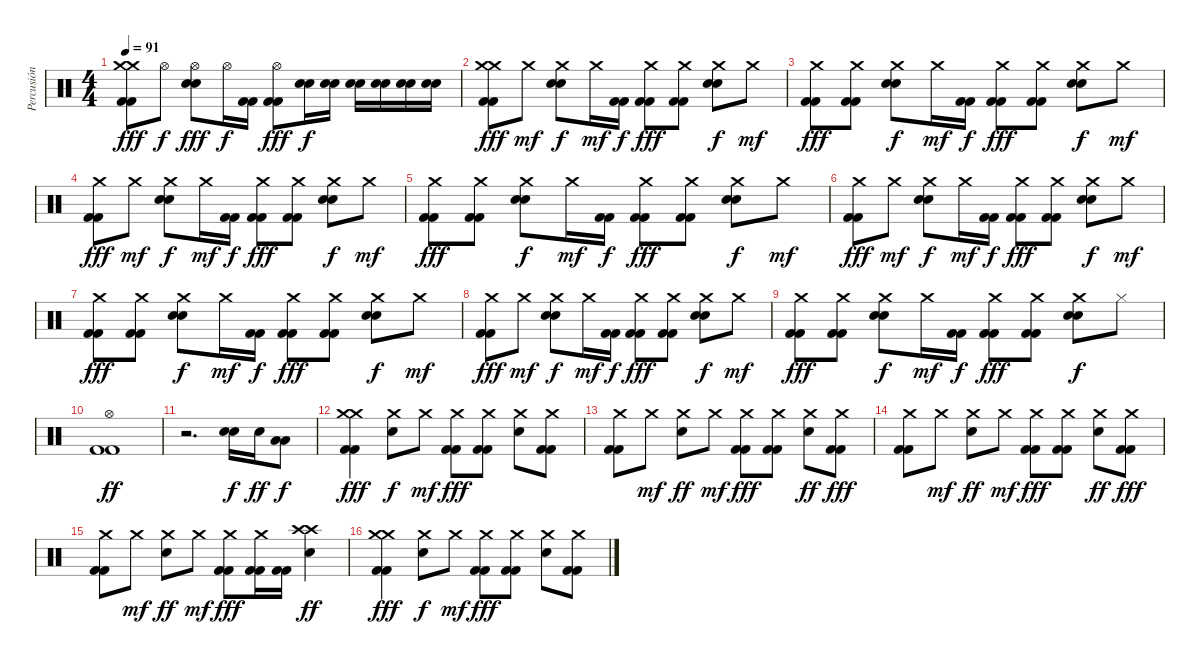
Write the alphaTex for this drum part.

\track ("Percusión" "Percusión") {instrument percussion}
\staff {score}
\articulation defaults
\ts (4 4)
\tempo 91
\clef neutral
\ks c
("Crash medium (hit)" "Crash medium (hit)" "Kick (hit) 2" "Kick (hit) 2").8{dy fff} "Hi-Hat (open)".8{dy f} ("Hi-Hat (open)" "Electric Snare (hit)" "Electric Snare (hit)").8{dy fff} "Hi-Hat (open)".16{dy f} ("Kick (hit) 2" "Kick (hit) 2").16 ("Hi-Hat (open)" "Kick (hit) 2" "Kick (hit) 2").8{dy fff} ("Electric Snare (hit)" "Electric Snare (hit)").16{dy f} ("Electric Snare (hit)" "Electric Snare (hit)").16 ("Electric Snare (hit)" "Electric Snare (hit)").16 ("Electric Snare (hit)" "Electric Snare (hit)").16 ("Electric Snare (hit)" "Electric Snare (hit)").16 ("Electric Snare (hit)" "Electric Snare (hit)").16 |
("Crash medium (hit)" "Crash medium (hit)" "Kick (hit) 2" "Kick (hit) 2").8{dy fff} "Crash medium (hit)".8{dy mf} ("Crash medium (hit)" "Electric Snare (hit)" "Electric Snare (hit)").8{dy f} "Crash medium (hit)".16{dy mf} ("Kick (hit) 2" "Kick (hit) 2").16{dy f} ("Crash medium (hit)" "Kick (hit) 2" "Kick (hit) 2").8{dy fff} ("Crash medium (hit)" "Kick (hit) 2" "Kick (hit) 2").8 ("Crash medium (hit)" "Electric Snare (hit)" "Electric Snare (hit)").8{dy f} "Crash medium (hit)".8{dy mf} |
("Crash medium (hit)" "Kick (hit) 2" "Kick (hit) 2").8{dy fff} ("Crash medium (hit)" "Kick (hit) 2" "Kick (hit) 2").8 ("Crash medium (hit)" "Electric Snare (hit)" "Electric Snare (hit)").8{dy f} "Crash medium (hit)".16{dy mf} ("Kick (hit) 2" "Kick (hit) 2").16{dy f} ("Crash medium (hit)" "Kick (hit) 2" "Kick (hit) 2").8{dy fff} ("Crash medium (hit)" "Kick (hit) 2" "Kick (hit) 2").8 ("Crash medium (hit)" "Electric Snare (hit)" "Electric Snare (hit)").8{dy f} "Crash medium (hit)".8{dy mf} |
("Crash medium (hit)" "Kick (hit) 2" "Kick (hit) 2").8{dy fff} "Crash medium (hit)".8{dy mf} ("Crash medium (hit)" "Electric Snare (hit)" "Electric Snare (hit)").8{dy f} "Crash medium (hit)".16{dy mf} ("Kick (hit) 2" "Kick (hit) 2").16{dy f} ("Crash medium (hit)" "Kick (hit) 2" "Kick (hit) 2").8{dy fff} ("Crash medium (hit)" "Kick (hit) 2" "Kick (hit) 2").8 ("Crash medium (hit)" "Electric Snare (hit)" "Electric Snare (hit)").8{dy f} "Crash medium (hit)".8{dy mf} |
("Crash medium (hit)" "Kick (hit) 2" "Kick (hit) 2").8{dy fff} ("Crash medium (hit)" "Kick (hit) 2" "Kick (hit) 2").8 ("Crash medium (hit)" "Electric Snare (hit)" "Electric Snare (hit)").8{dy f} "Crash medium (hit)".16{dy mf} ("Kick (hit) 2" "Kick (hit) 2").16{dy f} ("Crash medium (hit)" "Kick (hit) 2" "Kick (hit) 2").8{dy fff} ("Crash medium (hit)" "Kick (hit) 2" "Kick (hit) 2").8 ("Crash medium (hit)" "Electric Snare (hit)" "Electric Snare (hit)").8{dy f} "Crash medium (hit)".8{dy mf} |
("Crash medium (hit)" "Kick (hit) 2" "Kick (hit) 2").8{dy fff} "Crash medium (hit)".8{dy mf} ("Crash medium (hit)" "Electric Snare (hit)" "Electric Snare (hit)").8{dy f} "Crash medium (hit)".16{dy mf} ("Kick (hit) 2" "Kick (hit) 2").16{dy f} ("Crash medium (hit)" "Kick (hit) 2" "Kick (hit) 2").8{dy fff} ("Crash medium (hit)" "Kick (hit) 2" "Kick (hit) 2").8 ("Crash medium (hit)" "Electric Snare (hit)" "Electric Snare (hit)").8{dy f} "Crash medium (hit)".8{dy mf} |
("Crash medium (hit)" "Kick (hit) 2" "Kick (hit) 2").8{dy fff} ("Crash medium (hit)" "Kick (hit) 2" "Kick (hit) 2").8 ("Crash medium (hit)" "Electric Snare (hit)" "Electric Snare (hit)").8{dy f} "Crash medium (hit)".16{dy mf} ("Kick (hit) 2" "Kick (hit) 2").16{dy f} ("Crash medium (hit)" "Kick (hit) 2" "Kick (hit) 2").8{dy fff} ("Crash medium (hit)" "Kick (hit) 2" "Kick (hit) 2").8 ("Crash medium (hit)" "Electric Snare (hit)" "Electric Snare (hit)").8{dy f} "Crash medium (hit)".8{dy mf} |
("Crash medium (hit)" "Kick (hit) 2" "Kick (hit) 2").8{dy fff} "Crash medium (hit)".8{dy mf} ("Crash medium (hit)" "Electric Snare (hit)" "Electric Snare (hit)").8{dy f} "Crash medium (hit)".16{dy mf} ("Kick (hit) 2" "Kick (hit) 2").16{dy f} ("Crash medium (hit)" "Kick (hit) 2" "Kick (hit) 2").8{dy fff} ("Crash medium (hit)" "Kick (hit) 2" "Kick (hit) 2").8 ("Crash medium (hit)" "Electric Snare (hit)" "Electric Snare (hit)").8{dy f} "Crash medium (hit)".8{dy mf} |
("Crash medium (hit)" "Kick (hit) 2" "Kick (hit) 2").8{dy fff} ("Crash medium (hit)" "Kick (hit) 2" "Kick (hit) 2").8 ("Crash medium (hit)" "Electric Snare (hit)" "Electric Snare (hit)").8{dy f} "Crash medium (hit)".16{dy mf} ("Kick (hit) 2" "Kick (hit) 2").16{dy f} ("Crash medium (hit)" "Kick (hit) 2" "Kick (hit) 2").8{dy fff} ("Crash medium (hit)" "Kick (hit) 2" "Kick (hit) 2").8 ("Crash medium (hit)" "Electric Snare (hit)" "Electric Snare (hit)").8{dy f} "Hi-Hat (closed)".8 |
("Hi-Hat (open)" "Kick (hit) 2" "Kick (hit) 2").1{dy ff} |
r.2{d} ("Electric Snare (hit)" "Electric Snare (hit)").16{dy f} "Electric Snare (hit)".16{dy ff} ("Low Tom (hit)" "Low Tom (hit)").8{dy f} |
("Crash medium (hit)" "Crash medium (hit)" "Kick (hit) 2" "Kick (hit) 2").4{dy fff} ("Crash medium (hit)" "Electric Snare (hit)").8{dy f} "Crash medium (hit)".8{dy mf} ("Crash medium (hit)" "Kick (hit) 2" "Kick (hit) 2").8{dy fff} ("Crash medium (hit)" "Kick (hit) 2" "Kick (hit) 2").8 ("Crash medium (hit)" "Electric Snare (hit)").8 ("Crash medium (hit)" "Kick (hit) 2" "Kick (hit) 2").8 |
("Crash medium (hit)" "Kick (hit) 2" "Kick (hit) 2").8 "Crash medium (hit)".8{dy mf} ("Crash medium (hit)" "Electric Snare (hit)").8{dy ff} "Crash medium (hit)".8{dy mf} ("Crash medium (hit)" "Kick (hit) 2" "Kick (hit) 2").8{dy fff} ("Crash medium (hit)" "Kick (hit) 2" "Kick (hit) 2").8 ("Crash medium (hit)" "Electric Snare (hit)").8{dy ff} ("Crash medium (hit)" "Kick (hit) 2" "Kick (hit) 2").8{dy fff} |
("Crash medium (hit)" "Kick (hit) 2" "Kick (hit) 2").8 "Crash medium (hit)".8{dy mf} ("Crash medium (hit)" "Electric Snare (hit)").8{dy ff} "Crash medium (hit)".8{dy mf} ("Crash medium (hit)" "Kick (hit) 2" "Kick (hit) 2").8{dy fff} ("Crash medium (hit)" "Kick (hit) 2" "Kick (hit) 2").8 ("Crash medium (hit)" "Electric Snare (hit)").8{dy ff} ("Crash medium (hit)" "Kick (hit) 2" "Kick (hit) 2").8{dy fff} |
("Crash medium (hit)" "Kick (hit) 2" "Kick (hit) 2").8 "Crash medium (hit)".8{dy mf} ("Crash medium (hit)" "Electric Snare (hit)").8{dy ff} "Crash medium (hit)".8{dy mf} ("Crash medium (hit)" "Kick (hit) 2" "Kick (hit) 2").8{dy fff} ("Crash medium (hit)" "Kick (hit) 2" "Kick (hit) 2").16 ("Kick (hit) 2" "Kick (hit) 2").16 ("Crash high (hit)" "Crash high (hit)" "Electric Snare (hit)").4{dy ff} |
("Crash medium (hit)" "Crash medium (hit)" "Kick (hit) 2" "Kick (hit) 2").4{dy fff} ("Crash medium (hit)" "Electric Snare (hit)").8{dy f} "Crash medium (hit)".8{dy mf} ("Crash medium (hit)" "Kick (hit) 2" "Kick (hit) 2").8{dy fff} ("Crash medium (hit)" "Kick (hit) 2" "Kick (hit) 2").8 ("Crash medium (hit)" "Electric Snare (hit)").8 ("Crash medium (hit)" "Kick (hit) 2" "Kick (hit) 2").8
